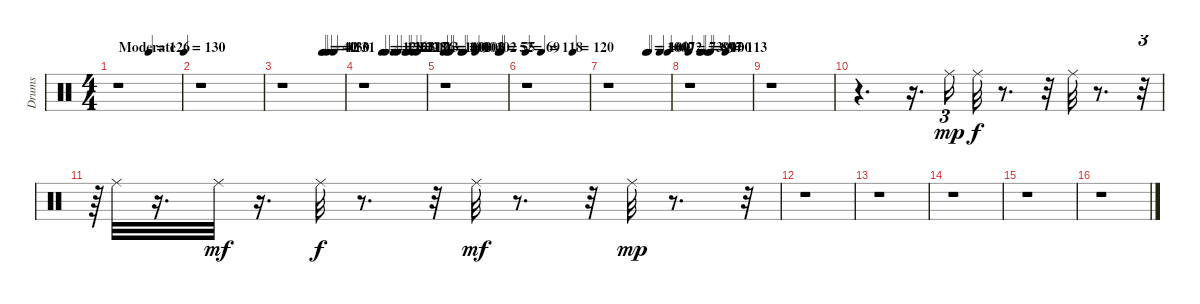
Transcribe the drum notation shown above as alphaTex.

\track ("Drums" "Drums") {instrument percussion}
\staff {score}
\articulation defaults
\ts (4 4)
\tempo (130 "Moderate")
\tempo (126 0.5)
\tempo (130 "Moderate")
\clef neutral
\ks c
r.1{dy mp} |
r.1 |
\tempo (40 0.65625)
\tempo (42 0.6875)
\tempo (130 0.75)
\tempo (131 0.84375)
r.1 |
\tempo (128 0.3125)
\tempo (126 0.375)
\tempo (123 0.5)
\tempo (122 0.5625)
\tempo (118 0.6875)
\tempo (117 0.71875)
\tempo (116 0.8125)
\tempo (113 0.875)
r.1 |
\tempo 110
\tempo (109 0.0625)
\tempo (108 0.09375)
\tempo (104 0.28125)
\tempo (103 0.3125)
\tempo (102 0.5)
\tempo (52 0.875)
\tempo (55 0.90625)
r.1 |
\tempo 69
\tempo (118 0.25)
\tempo (120 0.75)
r.1 |
\tempo (104 0.625)
\tempo (100 0.65625)
\tempo (69 0.84375)
\tempo (72 0.96875)
r.1 |
\tempo 73
\tempo (89 0.1875)
\tempo (90 0.21875)
\tempo (97 0.3125)
\tempo (100 0.34375)
\tempo (113 0.59375)
r.1 |
r.1 |
r.4{d} r.16{d} "Ride (middle)".16{tu (3 2)} "Ride (middle)".32{dy f} r.8{d} r.32 "Ride (middle)".32 r.8{d} r.32{tu (3 2)} |
r.64{tu (3 2)} "Ride (middle)".32 r.16{d} "Ride (middle)".32{dy mf} r.16{d} "Ride (middle)".32{dy f} r.8{d} r.32 "Ride (middle)".32{dy mf} r.8{d} r.32 "Ride (middle)".32{dy mp} r.8{d} r.32{tu (3 2)} |
r.1 |
r.1 |
r.1 |
r.1 |
r.1
